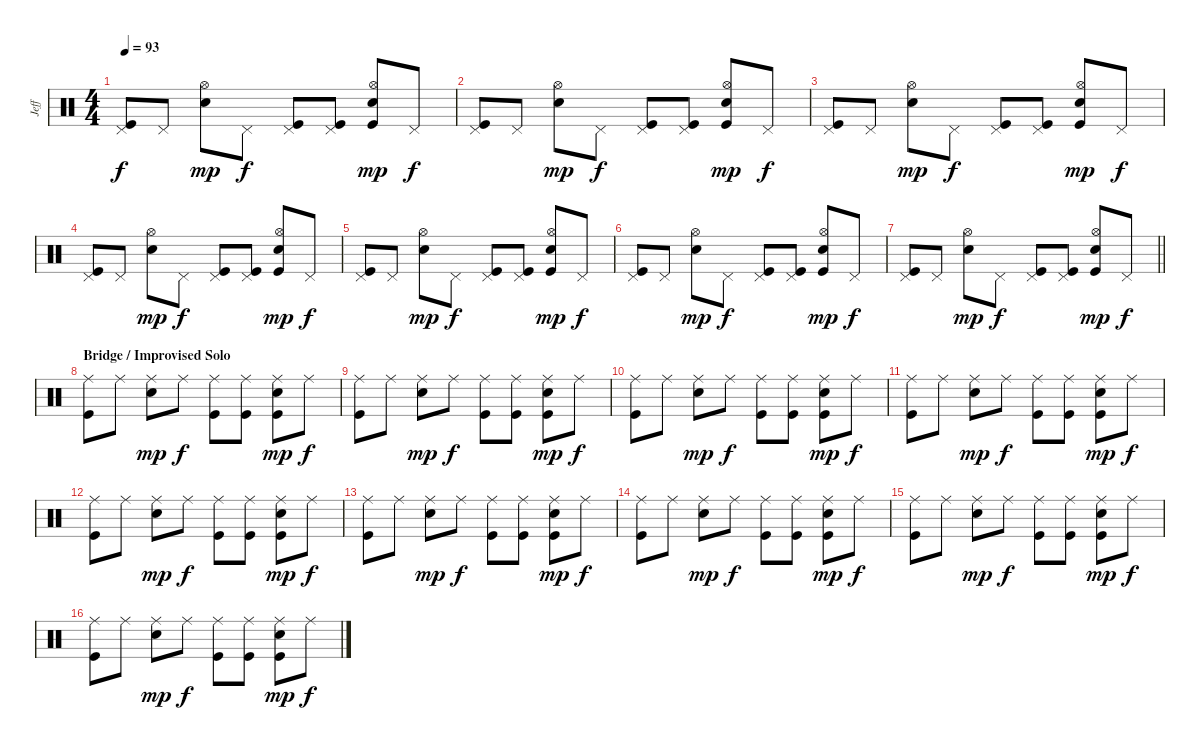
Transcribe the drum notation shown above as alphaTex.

\track ("Jeff" "Jeff") {instrument percussion}
\staff {score}
\articulation defaults
\ts (4 4)
\tempo 93
\clef neutral
\ks c
("Pedal Hi-Hat (hit)" "Kick (hit)").8{dy f} "Pedal Hi-Hat (hit)".8 ("Hi-Hat (open)" "Snare (hit) 2").8{dy mp} "Pedal Hi-Hat (hit)".8{dy f} ("Pedal Hi-Hat (hit)" "Kick (hit)").8 ("Pedal Hi-Hat (hit)" "Kick (hit)").8 ("Hi-Hat (open)" "Snare (hit) 2" "Kick (hit)").8{dy mp} "Pedal Hi-Hat (hit)".8{dy f} |
("Pedal Hi-Hat (hit)" "Kick (hit)").8 "Pedal Hi-Hat (hit)".8 ("Hi-Hat (open)" "Snare (hit) 2").8{dy mp} "Pedal Hi-Hat (hit)".8{dy f} ("Pedal Hi-Hat (hit)" "Kick (hit)").8 ("Pedal Hi-Hat (hit)" "Kick (hit)").8 ("Hi-Hat (open)" "Snare (hit) 2" "Kick (hit)").8{dy mp} "Pedal Hi-Hat (hit)".8{dy f} |
("Pedal Hi-Hat (hit)" "Kick (hit)").8 "Pedal Hi-Hat (hit)".8 ("Hi-Hat (open)" "Snare (hit) 2").8{dy mp} "Pedal Hi-Hat (hit)".8{dy f} ("Pedal Hi-Hat (hit)" "Kick (hit)").8 ("Pedal Hi-Hat (hit)" "Kick (hit)").8 ("Hi-Hat (open)" "Snare (hit) 2" "Kick (hit)").8{dy mp} "Pedal Hi-Hat (hit)".8{dy f} |
("Pedal Hi-Hat (hit)" "Kick (hit)").8 "Pedal Hi-Hat (hit)".8 ("Hi-Hat (open)" "Snare (hit) 2").8{dy mp} "Pedal Hi-Hat (hit)".8{dy f} ("Pedal Hi-Hat (hit)" "Kick (hit)").8 ("Pedal Hi-Hat (hit)" "Kick (hit)").8 ("Hi-Hat (open)" "Snare (hit) 2" "Kick (hit)").8{dy mp} "Pedal Hi-Hat (hit)".8{dy f} |
("Pedal Hi-Hat (hit)" "Kick (hit)").8 "Pedal Hi-Hat (hit)".8 ("Hi-Hat (open)" "Snare (hit) 2").8{dy mp} "Pedal Hi-Hat (hit)".8{dy f} ("Pedal Hi-Hat (hit)" "Kick (hit)").8 ("Pedal Hi-Hat (hit)" "Kick (hit)").8 ("Hi-Hat (open)" "Snare (hit) 2" "Kick (hit)").8{dy mp} "Pedal Hi-Hat (hit)".8{dy f} |
("Pedal Hi-Hat (hit)" "Kick (hit)").8 "Pedal Hi-Hat (hit)".8 ("Hi-Hat (open)" "Snare (hit) 2").8{dy mp} "Pedal Hi-Hat (hit)".8{dy f} ("Pedal Hi-Hat (hit)" "Kick (hit)").8 ("Pedal Hi-Hat (hit)" "Kick (hit)").8 ("Hi-Hat (open)" "Snare (hit) 2" "Kick (hit)").8{dy mp} "Pedal Hi-Hat (hit)".8{dy f} |
\barLineRight lightlight
("Pedal Hi-Hat (hit)" "Kick (hit)").8 "Pedal Hi-Hat (hit)".8 ("Hi-Hat (open)" "Snare (hit) 2").8{dy mp} "Pedal Hi-Hat (hit)".8{dy f} ("Pedal Hi-Hat (hit)" "Kick (hit)").8 ("Pedal Hi-Hat (hit)" "Kick (hit)").8 ("Hi-Hat (open)" "Snare (hit) 2" "Kick (hit)").8{dy mp} "Pedal Hi-Hat (hit)".8{dy f} |
\section ("" "Bridge / Improvised Solo")
("Ride (middle)" "Kick (hit)").8 "Ride (middle)".8 ("Ride (middle)" "Snare (hit) 2").8{dy mp} "Ride (middle)".8{dy f} ("Ride (middle)" "Kick (hit)").8 ("Ride (middle)" "Kick (hit)").8 ("Ride (middle)" "Snare (hit) 2" "Kick (hit)").8{dy mp} "Ride (middle)".8{dy f} |
("Ride (middle)" "Kick (hit)").8 "Ride (middle)".8 ("Ride (middle)" "Snare (hit) 2").8{dy mp} "Ride (middle)".8{dy f} ("Ride (middle)" "Kick (hit)").8 ("Ride (middle)" "Kick (hit)").8 ("Ride (middle)" "Snare (hit) 2" "Kick (hit)").8{dy mp} "Ride (middle)".8{dy f} |
("Ride (middle)" "Kick (hit)").8 "Ride (middle)".8 ("Ride (middle)" "Snare (hit) 2").8{dy mp} "Ride (middle)".8{dy f} ("Ride (middle)" "Kick (hit)").8 ("Ride (middle)" "Kick (hit)").8 ("Ride (middle)" "Snare (hit) 2" "Kick (hit)").8{dy mp} "Ride (middle)".8{dy f} |
("Ride (middle)" "Kick (hit)").8 "Ride (middle)".8 ("Ride (middle)" "Snare (hit) 2").8{dy mp} "Ride (middle)".8{dy f} ("Ride (middle)" "Kick (hit)").8 ("Ride (middle)" "Kick (hit)").8 ("Ride (middle)" "Snare (hit) 2" "Kick (hit)").8{dy mp} "Ride (middle)".8{dy f} |
("Ride (middle)" "Kick (hit)").8 "Ride (middle)".8 ("Ride (middle)" "Snare (hit) 2").8{dy mp} "Ride (middle)".8{dy f} ("Ride (middle)" "Kick (hit)").8 ("Ride (middle)" "Kick (hit)").8 ("Ride (middle)" "Snare (hit) 2" "Kick (hit)").8{dy mp} "Ride (middle)".8{dy f} |
("Ride (middle)" "Kick (hit)").8 "Ride (middle)".8 ("Ride (middle)" "Snare (hit) 2").8{dy mp} "Ride (middle)".8{dy f} ("Ride (middle)" "Kick (hit)").8 ("Ride (middle)" "Kick (hit)").8 ("Ride (middle)" "Snare (hit) 2" "Kick (hit)").8{dy mp} "Ride (middle)".8{dy f} |
("Ride (middle)" "Kick (hit)").8 "Ride (middle)".8 ("Ride (middle)" "Snare (hit) 2").8{dy mp} "Ride (middle)".8{dy f} ("Ride (middle)" "Kick (hit)").8 ("Ride (middle)" "Kick (hit)").8 ("Ride (middle)" "Snare (hit) 2" "Kick (hit)").8{dy mp} "Ride (middle)".8{dy f} |
("Ride (middle)" "Kick (hit)").8 "Ride (middle)".8 ("Ride (middle)" "Snare (hit) 2").8{dy mp} "Ride (middle)".8{dy f} ("Ride (middle)" "Kick (hit)").8 ("Ride (middle)" "Kick (hit)").8 ("Ride (middle)" "Snare (hit) 2" "Kick (hit)").8{dy mp} "Ride (middle)".8{dy f} |
("Ride (middle)" "Kick (hit)").8 "Ride (middle)".8 ("Ride (middle)" "Snare (hit) 2").8{dy mp} "Ride (middle)".8{dy f} ("Ride (middle)" "Kick (hit)").8 ("Ride (middle)" "Kick (hit)").8 ("Ride (middle)" "Snare (hit) 2" "Kick (hit)").8{dy mp} "Ride (middle)".8{dy f}
